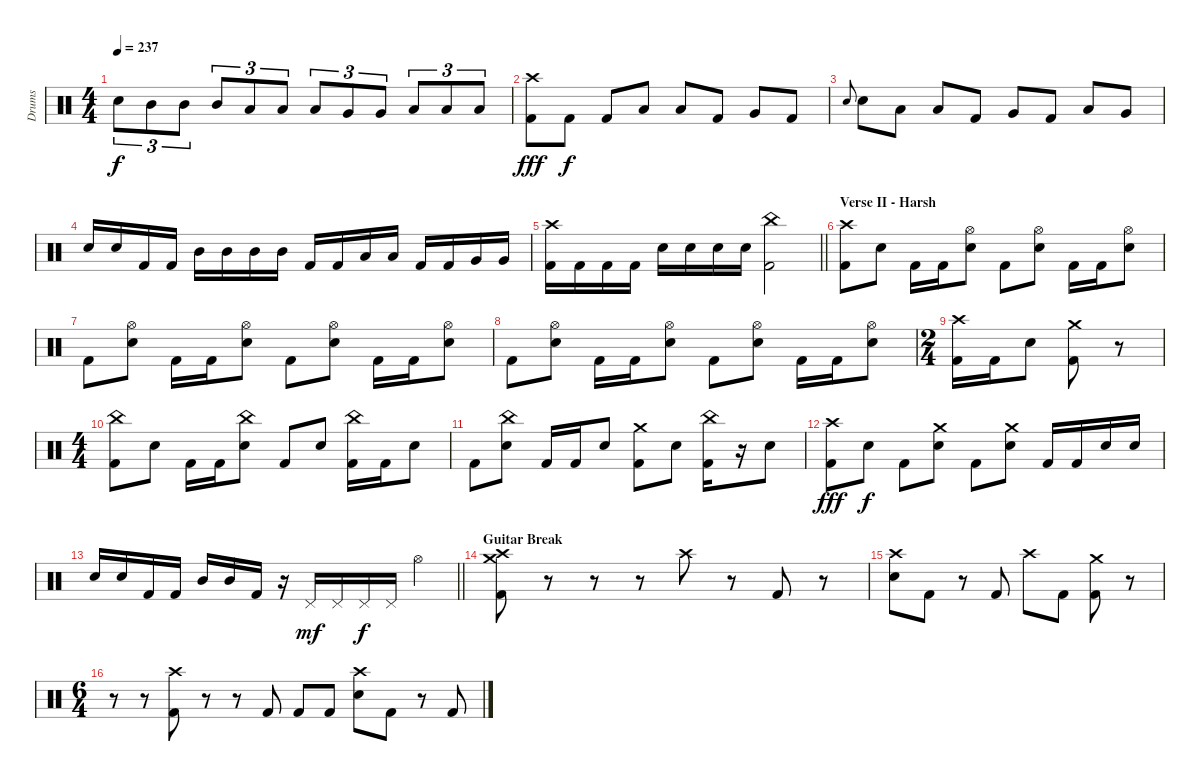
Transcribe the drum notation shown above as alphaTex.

\track ("Drums" "Drums") {instrument percussion}
\staff {score}
\articulation defaults
\ts (4 4)
\tempo 237
\clef neutral
\ks c "Electric Snare (hit)".8{tu (3 2) dy f} "Mid Tom (hit)".8{tu (3 2)} "Mid Tom (hit)".8{tu (3 2)} "Mid Tom (hit)".8{tu (3 2)} "Low Tom (hit)".8{tu (3 2)} "Low Tom (hit)".8{tu (3 2)} "Low Tom (hit)".8{tu (3 2)} "Very Low Tom (hit)".8{tu (3 2)} "Very Low Tom (hit)".8{tu (3 2)} "Low Floor Tom (hit)".8{tu (3 2)} "Low Floor Tom (hit)".8{tu (3 2)} "Low Floor Tom (hit)".8{tu (3 2)}
|
("Crash high (hit)" "Kick (hit) 2").8{dy fff} "Kick (hit) 2".8{dy f} "Kick (hit) 2".8 "Low Tom (hit)".8 "Low Tom (hit)".8 "Kick (hit) 2".8 "Very Low Tom (hit)".8 "Kick (hit) 2".8 |
"Electric Snare (hit)".8{gr onbeat} "Electric Snare (hit)".8 "Low Floor Tom (hit)".8 "Low Floor Tom (hit)".8 "Kick (hit) 2".8 "Very Low Tom (hit)".8 "Kick (hit) 2".8 "Low Tom (hit)".8 "Very Low Tom (hit)".8 |
"Electric Snare (hit)".16 "Electric Snare (hit)".16 "Kick (hit) 2".16 "Kick (hit) 2".16 "Mid Tom (hit)".16 "Mid Tom (hit)".16 "Mid Tom (hit)".16 "Mid Tom (hit)".16 "Kick (hit) 2".16 "Kick (hit) 2".16 "Low Tom (hit)".16 "Low Tom (hit)".16 "Kick (hit) 2".16 "Kick (hit) 2".16 "Very Low Tom (hit)".16 "Very Low Tom (hit)".16 |
\barLineRight lightlight
("Crash high (hit)" "Kick (hit) 2").16 "Kick (hit) 2".16 "Kick (hit) 2".16 "Kick (hit) 2".16 "Electric Snare (hit)".16 "Electric Snare (hit)".16 "Electric Snare (hit)".16 "Electric Snare (hit)".16 ("China (hit)" "Kick (hit) 2").2 |
\section ("" "Verse II - Harsh")
("Crash high (hit)" "Kick (hit) 2").8 "Electric Snare (hit)".8 "Kick (hit) 2".16 "Kick (hit) 2".16 ("Hi-Hat (open)" "Electric Snare (hit)").8 "Kick (hit) 2".8 ("Hi-Hat (open)" "Electric Snare (hit)").8 "Kick (hit) 2".16 "Kick (hit) 2".16 ("Hi-Hat (open)" "Electric Snare (hit)").8 |
"Kick (hit) 2".8 ("Hi-Hat (open)" "Electric Snare (hit)").8 "Kick (hit) 2".16 "Kick (hit) 2".16 ("Hi-Hat (open)" "Electric Snare (hit)").8 "Kick (hit) 2".8 ("Hi-Hat (open)" "Electric Snare (hit)").8 "Kick (hit) 2".16 "Kick (hit) 2".16 ("Hi-Hat (open)" "Electric Snare (hit)").8 |
"Kick (hit) 2".8 ("Hi-Hat (open)" "Electric Snare (hit)").8 "Kick (hit) 2".16 "Kick (hit) 2".16 ("Hi-Hat (open)" "Electric Snare (hit)").8 "Kick (hit) 2".8 ("Hi-Hat (open)" "Electric Snare (hit)").8 "Kick (hit) 2".16 "Kick (hit) 2".16 ("Hi-Hat (open)" "Electric Snare (hit)").8 |
\ts (2 4)
("Crash high (hit)" "Kick (hit) 2").16 "Kick (hit) 2".16 "Electric Snare (hit)".8 ("Crash medium (hit)" "Kick (hit) 2").8 r.8 |
\ts (4 4)
("China (hit)" "Kick (hit) 2").8 "Electric Snare (hit)".8 "Kick (hit) 2".16 "Kick (hit) 2".16 ("China (hit)" "Electric Snare (hit)").8 "Kick (hit) 2".8 "Electric Snare (hit)".8 ("China (hit)" "Kick (hit) 2").16 "Kick (hit) 2".16 "Electric Snare (hit)".8 |
"Kick (hit) 2".8 ("China (hit)" "Electric Snare (hit)").8 "Kick (hit) 2".16 "Kick (hit) 2".16 "Electric Snare (hit)".8 ("Crash medium (hit)" "Kick (hit) 2").8 "Electric Snare (hit)".8 ("China (hit)" "Kick (hit) 2").16 r.16 "Electric Snare (hit)".8 |
("Crash high (hit)" "Kick (hit) 2").8{dy fff} "Electric Snare (hit)".8{dy f} "Kick (hit) 2".8 ("Crash medium (hit)" "Electric Snare (hit)").8 "Kick (hit) 2".8 ("Crash medium (hit)" "Electric Snare (hit)").8 "Kick (hit) 2".16 "Kick (hit) 2".16 "Electric Snare (hit)".16 "Electric Snare (hit)".16 |
\barLineRight lightlight "Electric Snare (hit)".16 "Electric Snare (hit)".16 "Kick (hit) 2".16 "Kick (hit) 2".16 "Mid Tom (hit)".16 "Mid Tom (hit)".16 "Kick (hit) 2".16
r.16 "Pedal Hi-Hat (hit)".16{dy mf} "Pedal Hi-Hat (hit)".16 "Pedal Hi-Hat (hit)".16{dy f} "Pedal Hi-Hat (hit)".16 "Hi-Hat (open)".4 |
\section ("" "Guitar Break")
("Crash high (hit)" "Crash medium (hit)" "Kick (hit) 2").8 r.8 r.8 r.8 "Crash high (hit)".8 r.8 "Kick (hit) 2".8 r.8 |
("Crash high (hit)" "Electric Snare (hit)").8 "Kick (hit) 2".8 r.8 "Kick (hit) 2".8 "Crash high (hit)".8 "Kick (hit) 2".8 ("Crash medium (hit)" "Kick (hit) 2").8 r.8 |
\ts (6 4)
r.8 r.8 ("Crash high (hit)" "Kick (hit) 2").8 r.8 r.8 "Kick (hit) 2".8 "Kick (hit) 2".8 "Kick (hit) 2".8 ("Crash high (hit)" "Electric Snare (hit)").8 "Kick (hit) 2".8 r.8 "Kick (hit) 2".8
